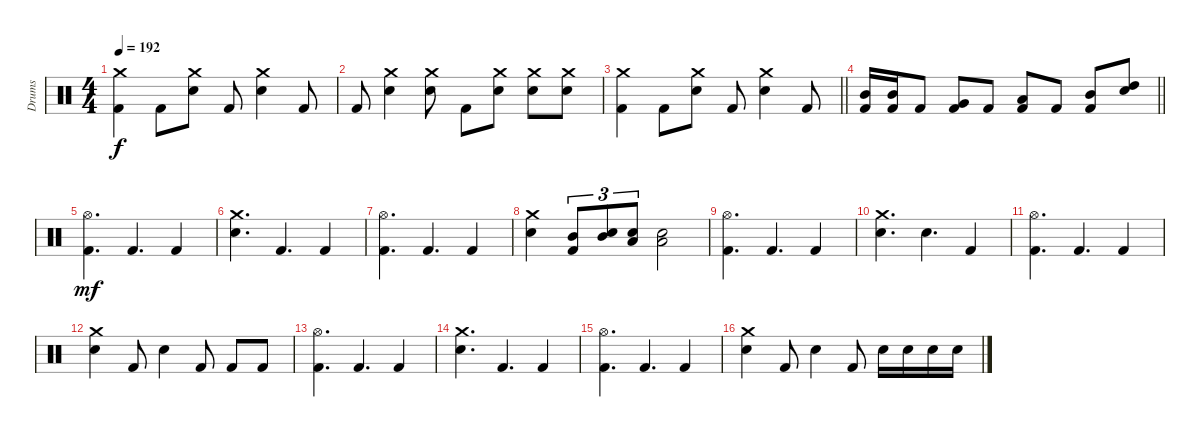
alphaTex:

\track ("Drums" "Drums") {instrument percussion}
\staff {score}
\articulation defaults
\ts (4 4)
\tempo 192
\clef neutral
\ks c
("Kick (hit) 2" "Crash medium (hit)").4{dy f} "Kick (hit) 2".8 ("Electric Snare (hit)" "Crash medium (hit)").8 "Kick (hit) 2".8 ("Electric Snare (hit)" "Crash medium (hit)").4 "Kick (hit) 2".8 |
"Kick (hit) 2".8 ("Electric Snare (hit)" "Crash medium (hit)").4 ("Electric Snare (hit)" "Crash medium (hit)").8 "Kick (hit) 2".8 ("Electric Snare (hit)" "Crash medium (hit)").8 ("Electric Snare (hit)" "Crash medium (hit)").8 ("Electric Snare (hit)" "Crash medium (hit)").8 |
\barLineRight lightlight
("Kick (hit) 2" "Crash medium (hit)").4 "Kick (hit) 2".8 ("Electric Snare (hit)" "Crash medium (hit)").8 "Kick (hit) 2".8 ("Electric Snare (hit)" "Crash medium (hit)").4 "Kick (hit) 2".8 |
\barLineRight lightlight
("Mid Tom (hit)" "Kick (hit) 2").16 ("Mid Tom (hit)" "Kick (hit) 2").16 "Kick (hit) 2".8 ("Very Low Tom (hit)" "Kick (hit) 2").8 "Kick (hit) 2".8 ("Low Floor Tom (hit)" "Kick (hit) 2").8 "Kick (hit) 2".8 ("Mid Tom (hit)" "Kick (hit) 2").8 ("High Tom (hit)" "Electric Snare (hit)").8 |
("Hi-Hat (open)" "Kick (hit) 2").4{d dy mf} "Kick (hit) 2".4{d} "Kick (hit) 2".4 |
("Crash medium (hit)" "Electric Snare (hit)").4{d} "Kick (hit) 2".4{d} "Kick (hit) 2".4 |
("Hi-Hat (open)" "Kick (hit) 2").4{d} "Kick (hit) 2".4{d} "Kick (hit) 2".4 |
("Crash medium (hit)" "Electric Snare (hit)").4 ("Mid Tom (hit)" "Kick (hit) 2").8{tu (3 2)} ("Mid Tom (hit)" "Electric Snare (hit)").8{tu (3 2)} ("Low Tom (hit)" "Electric Snare (hit)").8{tu (3 2)} ("Low Tom (hit)" "Electric Snare (hit)").2 |
("Hi-Hat (open)" "Kick (hit) 2").4{d} "Kick (hit) 2".4{d} "Kick (hit) 2".4 |
("Crash medium (hit)" "Electric Snare (hit)").4{d} "Electric Snare (hit)".4{d} "Kick (hit) 2".4 |
("Hi-Hat (open)" "Kick (hit) 2").4{d} "Kick (hit) 2".4{d} "Kick (hit) 2".4 |
("Crash medium (hit)" "Electric Snare (hit)").4 "Kick (hit) 2".8 "Electric Snare (hit)".4 "Kick (hit) 2".8 "Kick (hit) 2".8 "Kick (hit) 2".8 |
("Hi-Hat (open)" "Kick (hit) 2").4{d} "Kick (hit) 2".4{d} "Kick (hit) 2".4 |
("Crash medium (hit)" "Electric Snare (hit)").4{d} "Kick (hit) 2".4{d} "Kick (hit) 2".4 |
("Hi-Hat (open)" "Kick (hit) 2").4{d} "Kick (hit) 2".4{d} "Kick (hit) 2".4 |
("Crash medium (hit)" "Electric Snare (hit)").4 "Kick (hit) 2".8 "Electric Snare (hit)".4 "Kick (hit) 2".8 "Electric Snare (hit)".16 "Electric Snare (hit)".16 "Electric Snare (hit)".16 "Electric Snare (hit)".16
